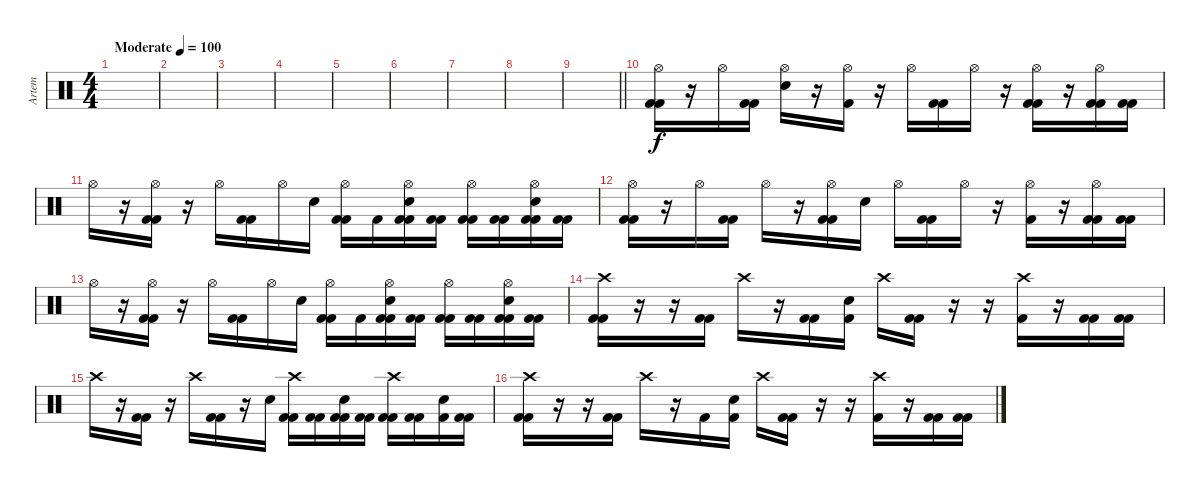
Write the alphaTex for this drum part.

\track ("Artem" "Artem") {instrument percussion}
\staff {score}
\articulation defaults
\ts (4 4)
\tempo (100 "Moderate")
\clef neutral
\ks c
|
|
|
|
|
|
|
|
\barLineRight lightlight
|
\section ("" "")
("Hi-Hat (open)" "Kick (hit) 2" "Kick (hit) 2").16 r.16 "Hi-Hat (open)".16 ("Kick (hit) 2" "Kick (hit) 2").16 ("Hi-Hat (open)" "Snare (hit) 2").16 r.16 ("Hi-Hat (open)" "Kick (hit) 2").16 r.16 "Hi-Hat (open)".16 ("Kick (hit) 2" "Kick (hit) 2").16 "Hi-Hat (open)".16 r.16 ("Hi-Hat (open)" "Kick (hit) 2" "Kick (hit) 2").16 r.16 ("Hi-Hat (open)" "Kick (hit) 2" "Kick (hit) 2").16 ("Kick (hit) 2" "Kick (hit) 2").16 |
"Hi-Hat (open)".16 r.16 ("Hi-Hat (open)" "Kick (hit) 2" "Kick (hit) 2").16 r.16 "Hi-Hat (open)".16 ("Kick (hit) 2" "Kick (hit) 2").16 "Hi-Hat (open)".16 "Snare (hit) 2".16 ("Hi-Hat (open)" "Kick (hit) 2" "Kick (hit) 2").16 "Kick (hit) 2".16 ("Hi-Hat (open)" "Kick (hit) 2" "Snare (hit) 2" "Kick (hit) 2").16 ("Kick (hit) 2" "Kick (hit) 2").16 ("Hi-Hat (open)" "Kick (hit) 2" "Kick (hit) 2").16 ("Kick (hit) 2" "Kick (hit) 2").16 ("Hi-Hat (open)" "Kick (hit) 2" "Snare (hit) 2" "Kick (hit) 2").16 ("Kick (hit) 2" "Kick (hit) 2").16 |
("Hi-Hat (open)" "Kick (hit) 2" "Kick (hit) 2").16 r.16 "Hi-Hat (open)".16 ("Kick (hit) 2" "Kick (hit) 2").16 "Hi-Hat (open)".16 r.16 ("Hi-Hat (open)" "Kick (hit) 2" "Kick (hit) 2").16 "Snare (hit) 2".16 "Hi-Hat (open)".16 ("Kick (hit) 2" "Kick (hit) 2").16 "Hi-Hat (open)".16 r.16 ("Hi-Hat (open)" "Kick (hit) 2").16 r.16 ("Hi-Hat (open)" "Kick (hit) 2" "Kick (hit) 2").16 ("Kick (hit) 2" "Kick (hit) 2").16 |
"Hi-Hat (open)".16 r.16 ("Hi-Hat (open)" "Kick (hit) 2" "Kick (hit) 2").16 r.16 "Hi-Hat (open)".16 ("Kick (hit) 2" "Kick (hit) 2").16 "Hi-Hat (open)".16 "Snare (hit) 2".16 ("Hi-Hat (open)" "Kick (hit) 2" "Kick (hit) 2").16 "Kick (hit) 2".16 ("Hi-Hat (open)" "Kick (hit) 2" "Snare (hit) 2" "Kick (hit) 2").16 ("Kick (hit) 2" "Kick (hit) 2").16 ("Hi-Hat (open)" "Kick (hit) 2" "Kick (hit) 2").16 ("Kick (hit) 2" "Kick (hit) 2").16 ("Hi-Hat (open)" "Kick (hit) 2" "Snare (hit) 2" "Kick (hit) 2").16 ("Kick (hit) 2" "Kick (hit) 2").16 |
("Crash high (hit)" "Kick (hit) 2" "Kick (hit) 2").16 r.16 r.16 ("Kick (hit) 2" "Kick (hit) 2").16 "Crash high (hit)".16 r.16 ("Kick (hit) 2" "Kick (hit) 2").16 ("Snare (hit) 2" "Kick (hit) 2").16 "Crash high (hit)".16 ("Kick (hit) 2" "Kick (hit) 2").16 r.16 r.16 ("Crash high (hit)" "Kick (hit) 2").16 r.16 ("Kick (hit) 2" "Kick (hit) 2").16 ("Kick (hit) 2" "Kick (hit) 2").16 |
"Crash high (hit)".16 r.16 ("Kick (hit) 2" "Kick (hit) 2").16 r.16 "Crash high (hit)".16 ("Kick (hit) 2" "Kick (hit) 2").16 r.16 "Snare (hit) 2".16 ("Crash high (hit)" "Kick (hit) 2" "Kick (hit) 2").16 ("Kick (hit) 2" "Kick (hit) 2").16 ("Snare (hit) 2" "Kick (hit) 2" "Kick (hit) 2").16 ("Kick (hit) 2" "Kick (hit) 2").16 ("Crash high (hit)" "Kick (hit) 2" "Kick (hit) 2").16 ("Kick (hit) 2" "Kick (hit) 2").16 ("Snare (hit) 2" "Kick (hit) 2").16 ("Kick (hit) 2" "Kick (hit) 2").16 |
("Crash high (hit)" "Kick (hit) 2" "Kick (hit) 2").16 r.16 r.16 ("Kick (hit) 2" "Kick (hit) 2").16 "Crash high (hit)".16 r.16 "Kick (hit) 2".16 ("Snare (hit) 2" "Kick (hit) 2").16 "Crash high (hit)".16 ("Kick (hit) 2" "Kick (hit) 2").16 r.16 r.16 ("Crash high (hit)" "Kick (hit) 2").16 r.16 ("Kick (hit) 2" "Kick (hit) 2").16 ("Kick (hit) 2" "Kick (hit) 2").16
